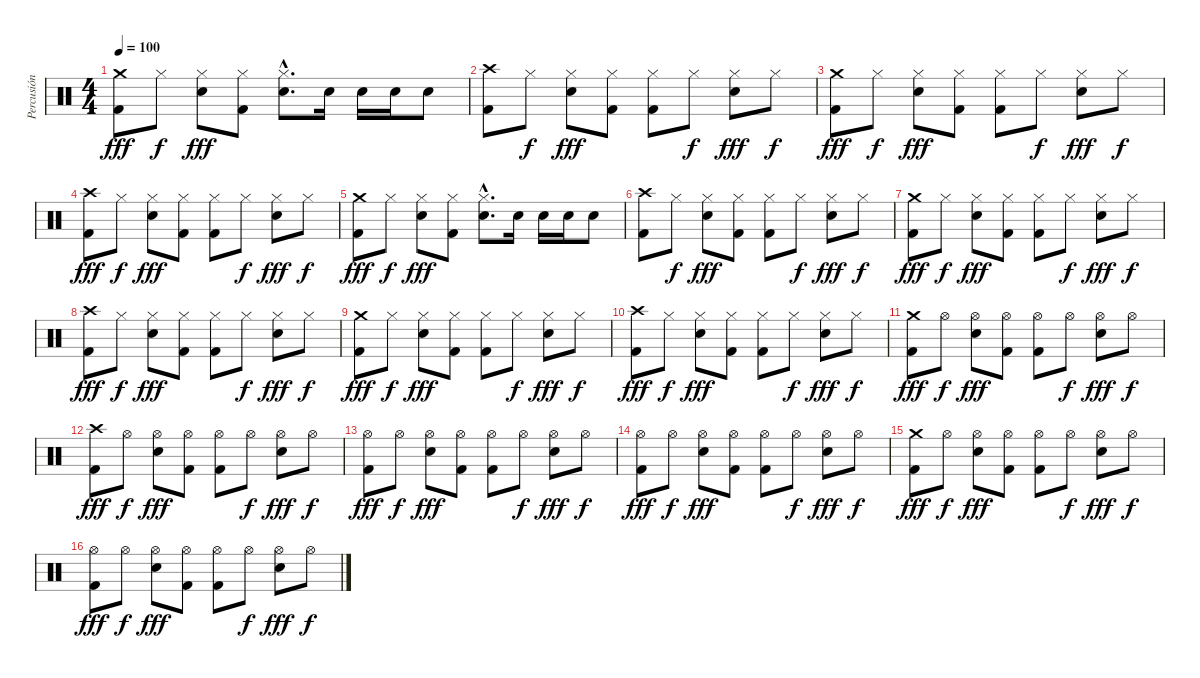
\track ("Percusión" "Percusión") {instrument percussion}
\staff {score}
\articulation defaults
\ts (4 4)
\tempo 100
\clef neutral
\ks c
("Crash medium (hit)" "Kick (hit) 2").8{dy fff} "Hi-Hat (closed)".8{dy f} ("Hi-Hat (closed)" "Snare (hit) 2").8{dy fff} ("Hi-Hat (closed)" "Kick (hit) 2").8 ("Hi-Hat (closed)"{hac} "Snare (hit) 2"{hac}).8{d} "Snare (hit) 2".16 "Snare (hit) 2".16 "Snare (hit) 2".16 "Snare (hit) 2".8 |
("Crash high (hit)" "Kick (hit) 2").8 "Hi-Hat (closed)".8{dy f} ("Hi-Hat (closed)" "Snare (hit) 2").8{dy fff} ("Hi-Hat (closed)" "Kick (hit) 2").8 ("Hi-Hat (closed)" "Kick (hit) 2").8 "Hi-Hat (closed)".8{dy f} ("Hi-Hat (closed)" "Snare (hit) 2").8{dy fff} "Hi-Hat (closed)".8{dy f} |
("Crash medium (hit)" "Kick (hit) 2").8{dy fff} "Hi-Hat (closed)".8{dy f} ("Hi-Hat (closed)" "Snare (hit) 2").8{dy fff} ("Hi-Hat (closed)" "Kick (hit) 2").8 ("Hi-Hat (closed)" "Kick (hit) 2").8 "Hi-Hat (closed)".8{dy f} ("Hi-Hat (closed)" "Snare (hit) 2").8{dy fff} "Hi-Hat (closed)".8{dy f} |
("Crash high (hit)" "Kick (hit) 2").8{dy fff} "Hi-Hat (closed)".8{dy f} ("Hi-Hat (closed)" "Snare (hit) 2").8{dy fff} ("Hi-Hat (closed)" "Kick (hit) 2").8 ("Hi-Hat (closed)" "Kick (hit) 2").8 "Hi-Hat (closed)".8{dy f} ("Hi-Hat (closed)" "Snare (hit) 2").8{dy fff} "Hi-Hat (closed)".8{dy f} |
("Crash medium (hit)" "Kick (hit) 2").8{dy fff} "Hi-Hat (closed)".8{dy f} ("Hi-Hat (closed)" "Snare (hit) 2").8{dy fff} ("Hi-Hat (closed)" "Kick (hit) 2").8 ("Hi-Hat (closed)"{hac} "Snare (hit) 2"{hac}).8{d} "Snare (hit) 2".16 "Snare (hit) 2".16 "Snare (hit) 2".16 "Snare (hit) 2".8 |
("Crash high (hit)" "Kick (hit) 2").8 "Hi-Hat (closed)".8{dy f} ("Hi-Hat (closed)" "Snare (hit) 2").8{dy fff} ("Hi-Hat (closed)" "Kick (hit) 2").8 ("Hi-Hat (closed)" "Kick (hit) 2").8 "Hi-Hat (closed)".8{dy f} ("Hi-Hat (closed)" "Snare (hit) 2").8{dy fff} "Hi-Hat (closed)".8{dy f} |
("Crash medium (hit)" "Kick (hit) 2").8{dy fff} "Hi-Hat (closed)".8{dy f} ("Hi-Hat (closed)" "Snare (hit) 2").8{dy fff} ("Hi-Hat (closed)" "Kick (hit) 2").8 ("Hi-Hat (closed)" "Kick (hit) 2").8 "Hi-Hat (closed)".8{dy f} ("Hi-Hat (closed)" "Snare (hit) 2").8{dy fff} "Hi-Hat (closed)".8{dy f} |
("Crash high (hit)" "Kick (hit) 2").8{dy fff} "Hi-Hat (closed)".8{dy f} ("Hi-Hat (closed)" "Snare (hit) 2").8{dy fff} ("Hi-Hat (closed)" "Kick (hit) 2").8 ("Hi-Hat (closed)" "Kick (hit) 2").8 "Hi-Hat (closed)".8{dy f} ("Hi-Hat (closed)" "Snare (hit) 2").8{dy fff} "Hi-Hat (closed)".8{dy f} |
("Crash medium (hit)" "Kick (hit) 2").8{dy fff} "Hi-Hat (closed)".8{dy f} ("Hi-Hat (closed)" "Snare (hit) 2").8{dy fff} ("Hi-Hat (closed)" "Kick (hit) 2").8 ("Hi-Hat (closed)" "Kick (hit) 2").8 "Hi-Hat (closed)".8{dy f} ("Hi-Hat (closed)" "Snare (hit) 2").8{dy fff} "Hi-Hat (closed)".8{dy f} |
("Crash high (hit)" "Kick (hit) 2").8{dy fff} "Hi-Hat (closed)".8{dy f} ("Hi-Hat (closed)" "Snare (hit) 2").8{dy fff} ("Hi-Hat (closed)" "Kick (hit) 2").8 ("Hi-Hat (closed)" "Kick (hit) 2").8 "Hi-Hat (closed)".8{dy f} ("Hi-Hat (closed)" "Snare (hit) 2").8{dy fff} "Hi-Hat (closed)".8{dy f} |
("Crash medium (hit)" "Kick (hit) 2").8{dy fff} "Hi-Hat (open)".8{dy f} ("Hi-Hat (open)" "Snare (hit) 2").8{dy fff} ("Hi-Hat (open)" "Kick (hit) 2").8 ("Hi-Hat (open)" "Kick (hit) 2").8 "Hi-Hat (open)".8{dy f} ("Hi-Hat (open)" "Snare (hit) 2").8{dy fff} "Hi-Hat (open)".8{dy f} |
("Crash high (hit)" "Kick (hit) 2").8{dy fff} "Hi-Hat (open)".8{dy f} ("Hi-Hat (open)" "Snare (hit) 2").8{dy fff} ("Hi-Hat (open)" "Kick (hit) 2").8 ("Hi-Hat (open)" "Kick (hit) 2").8 "Hi-Hat (open)".8{dy f} ("Hi-Hat (open)" "Snare (hit) 2").8{dy fff} "Hi-Hat (open)".8{dy f} |
("Hi-Hat (open)" "Kick (hit) 2").8{dy fff} "Hi-Hat (open)".8{dy f} ("Hi-Hat (open)" "Snare (hit) 2").8{dy fff} ("Hi-Hat (open)" "Kick (hit) 2").8 ("Hi-Hat (open)" "Kick (hit) 2").8 "Hi-Hat (open)".8{dy f} ("Hi-Hat (open)" "Snare (hit) 2").8{dy fff} "Hi-Hat (open)".8{dy f} |
("Hi-Hat (open)" "Kick (hit) 2").8{dy fff} "Hi-Hat (open)".8{dy f} ("Hi-Hat (open)" "Snare (hit) 2").8{dy fff} ("Hi-Hat (open)" "Kick (hit) 2").8 ("Hi-Hat (open)" "Kick (hit) 2").8 "Hi-Hat (open)".8{dy f} ("Hi-Hat (open)" "Snare (hit) 2").8{dy fff} "Hi-Hat (open)".8{dy f} |
("Crash medium (hit)" "Kick (hit) 2").8{dy fff} "Hi-Hat (open)".8{dy f} ("Hi-Hat (open)" "Snare (hit) 2").8{dy fff} ("Hi-Hat (open)" "Kick (hit) 2").8 ("Hi-Hat (open)" "Kick (hit) 2").8 "Hi-Hat (open)".8{dy f} ("Hi-Hat (open)" "Snare (hit) 2").8{dy fff} "Hi-Hat (open)".8{dy f} |
("Hi-Hat (open)" "Kick (hit) 2").8{dy fff} "Hi-Hat (open)".8{dy f} ("Hi-Hat (open)" "Snare (hit) 2").8{dy fff} ("Hi-Hat (open)" "Kick (hit) 2").8 ("Hi-Hat (open)" "Kick (hit) 2").8 "Hi-Hat (open)".8{dy f} ("Hi-Hat (open)" "Snare (hit) 2").8{dy fff} "Hi-Hat (open)".8{dy f}
